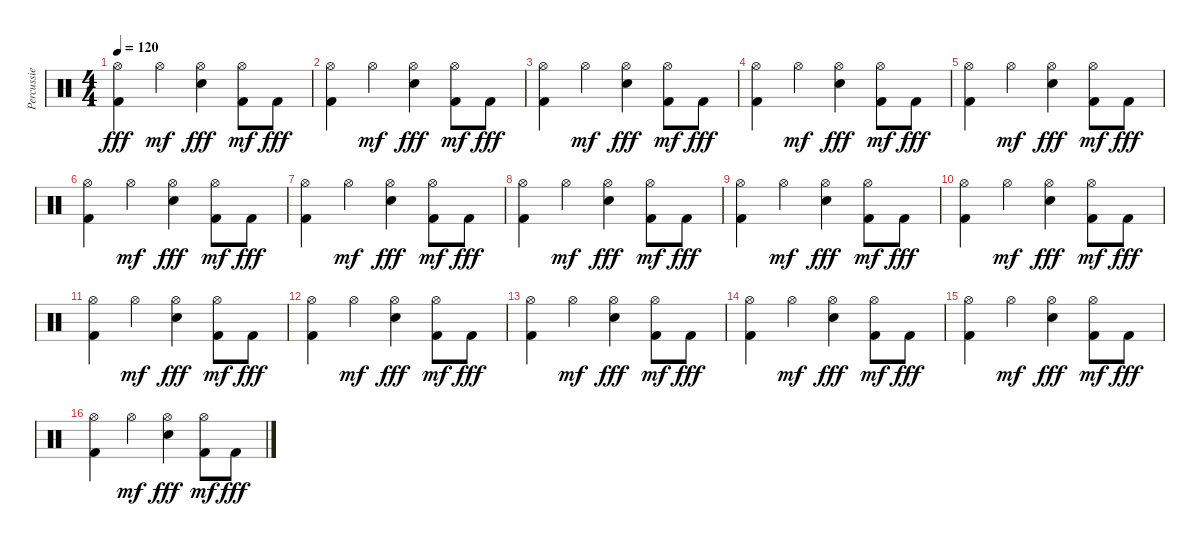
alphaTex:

\track ("Percussie" "Percussie") {instrument percussion}
\staff {score}
\articulation defaults
\ts (4 4)
\tempo 120
\clef neutral
\ks c
("Hi-Hat (open)" "Kick (hit) 2").4{dy fff} "Hi-Hat (open)".4{dy mf} ("Hi-Hat (open)" "Electric Snare (hit)").4{dy fff} ("Kick (hit) 2" "Hi-Hat (open)").8{dy mf} "Kick (hit) 2".8{dy fff} |
("Hi-Hat (open)" "Kick (hit) 2").4 "Hi-Hat (open)".4{dy mf} ("Hi-Hat (open)" "Electric Snare (hit)").4{dy fff} ("Kick (hit) 2" "Hi-Hat (open)").8{dy mf} "Kick (hit) 2".8{dy fff} |
("Hi-Hat (open)" "Kick (hit) 2").4 "Hi-Hat (open)".4{dy mf} ("Hi-Hat (open)" "Electric Snare (hit)").4{dy fff} ("Kick (hit) 2" "Hi-Hat (open)").8{dy mf} "Kick (hit) 2".8{dy fff} |
("Hi-Hat (open)" "Kick (hit) 2").4 "Hi-Hat (open)".4{dy mf} ("Hi-Hat (open)" "Electric Snare (hit)").4{dy fff} ("Kick (hit) 2" "Hi-Hat (open)").8{dy mf} "Kick (hit) 2".8{dy fff} |
("Hi-Hat (open)" "Kick (hit) 2").4 "Hi-Hat (open)".4{dy mf} ("Hi-Hat (open)" "Electric Snare (hit)").4{dy fff} ("Kick (hit) 2" "Hi-Hat (open)").8{dy mf} "Kick (hit) 2".8{dy fff} |
("Hi-Hat (open)" "Kick (hit) 2").4 "Hi-Hat (open)".4{dy mf} ("Hi-Hat (open)" "Electric Snare (hit)").4{dy fff} ("Kick (hit) 2" "Hi-Hat (open)").8{dy mf} "Kick (hit) 2".8{dy fff} |
("Hi-Hat (open)" "Kick (hit) 2").4 "Hi-Hat (open)".4{dy mf} ("Hi-Hat (open)" "Electric Snare (hit)").4{dy fff} ("Kick (hit) 2" "Hi-Hat (open)").8{dy mf} "Kick (hit) 2".8{dy fff} |
("Hi-Hat (open)" "Kick (hit) 2").4 "Hi-Hat (open)".4{dy mf} ("Hi-Hat (open)" "Electric Snare (hit)").4{dy fff} ("Kick (hit) 2" "Hi-Hat (open)").8{dy mf} "Kick (hit) 2".8{dy fff} |
("Hi-Hat (open)" "Kick (hit) 2").4 "Hi-Hat (open)".4{dy mf} ("Hi-Hat (open)" "Electric Snare (hit)").4{dy fff} ("Kick (hit) 2" "Hi-Hat (open)").8{dy mf} "Kick (hit) 2".8{dy fff} |
("Hi-Hat (open)" "Kick (hit) 2").4 "Hi-Hat (open)".4{dy mf} ("Hi-Hat (open)" "Electric Snare (hit)").4{dy fff} ("Kick (hit) 2" "Hi-Hat (open)").8{dy mf} "Kick (hit) 2".8{dy fff} |
("Hi-Hat (open)" "Kick (hit) 2").4 "Hi-Hat (open)".4{dy mf} ("Hi-Hat (open)" "Electric Snare (hit)").4{dy fff} ("Kick (hit) 2" "Hi-Hat (open)").8{dy mf} "Kick (hit) 2".8{dy fff} |
("Hi-Hat (open)" "Kick (hit) 2").4 "Hi-Hat (open)".4{dy mf} ("Hi-Hat (open)" "Electric Snare (hit)").4{dy fff} ("Kick (hit) 2" "Hi-Hat (open)").8{dy mf} "Kick (hit) 2".8{dy fff} |
("Hi-Hat (open)" "Kick (hit) 2").4 "Hi-Hat (open)".4{dy mf} ("Hi-Hat (open)" "Electric Snare (hit)").4{dy fff} ("Kick (hit) 2" "Hi-Hat (open)").8{dy mf} "Kick (hit) 2".8{dy fff} |
("Hi-Hat (open)" "Kick (hit) 2").4 "Hi-Hat (open)".4{dy mf} ("Hi-Hat (open)" "Electric Snare (hit)").4{dy fff} ("Kick (hit) 2" "Hi-Hat (open)").8{dy mf} "Kick (hit) 2".8{dy fff} |
("Hi-Hat (open)" "Kick (hit) 2").4 "Hi-Hat (open)".4{dy mf} ("Hi-Hat (open)" "Electric Snare (hit)").4{dy fff} ("Kick (hit) 2" "Hi-Hat (open)").8{dy mf} "Kick (hit) 2".8{dy fff} |
("Hi-Hat (open)" "Kick (hit) 2").4 "Hi-Hat (open)".4{dy mf} ("Hi-Hat (open)" "Electric Snare (hit)").4{dy fff} ("Kick (hit) 2" "Hi-Hat (open)").8{dy mf} "Kick (hit) 2".8{dy fff}
